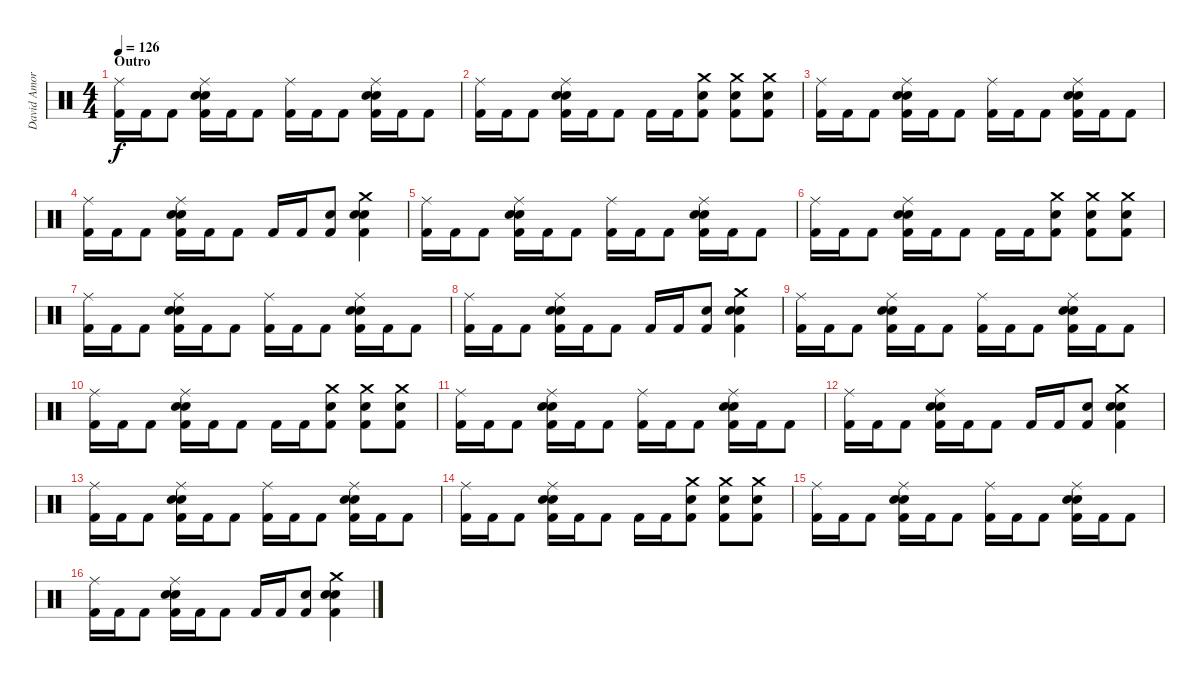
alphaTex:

\track ("David Amore" "David Amor") {instrument percussion}
\staff {score}
\articulation defaults
\ts (4 4)
\section ("" "Outro")
\tempo 126
\clef neutral
\ks c
("Ride (middle)" "Kick (hit) 2").16{dy f} "Kick (hit) 2".16 "Kick (hit) 2".8 ("Ride (middle)" "Snare (hit) 2" "Electric Snare (hit)" "Kick (hit) 2").16 "Kick (hit) 2".16 "Kick (hit) 2".8 ("Ride (middle)" "Kick (hit) 2").16 "Kick (hit) 2".16 "Kick (hit) 2".8 ("Ride (middle)" "Snare (hit) 2" "Electric Snare (hit)" "Kick (hit) 2").16 "Kick (hit) 2".16 "Kick (hit) 2".8 |
("Ride (middle)" "Kick (hit) 2").16 "Kick (hit) 2".16 "Kick (hit) 2".8 ("Electric Snare (hit)" "Snare (hit) 2" "Ride (middle)" "Kick (hit) 2").16 "Kick (hit) 2".16 "Kick (hit) 2".8 "Kick (hit) 2".16 "Kick (hit) 2".16 ("Crash medium (hit)" "Snare (hit) 2" "Kick (hit) 2").8 ("Crash medium (hit)" "Snare (hit) 2" "Kick (hit) 2").8 ("Crash medium (hit)" "Snare (hit) 2" "Kick (hit) 2").8 |
("Ride (middle)" "Kick (hit) 2").16 "Kick (hit) 2".16 "Kick (hit) 2".8 ("Ride (middle)" "Snare (hit) 2" "Electric Snare (hit)" "Kick (hit) 2").16 "Kick (hit) 2".16 "Kick (hit) 2".8 ("Ride (middle)" "Kick (hit) 2").16 "Kick (hit) 2".16 "Kick (hit) 2".8 ("Ride (middle)" "Snare (hit) 2" "Electric Snare (hit)" "Kick (hit) 2").16 "Kick (hit) 2".16 "Kick (hit) 2".8 |
("Ride (middle)" "Kick (hit) 2").16 "Kick (hit) 2".16 "Kick (hit) 2".8 ("Electric Snare (hit)" "Snare (hit) 2" "Ride (middle)" "Kick (hit) 2").16 "Kick (hit) 2".16 "Kick (hit) 2".8 "Kick (hit) 2".16 "Kick (hit) 2".16 ("Snare (hit) 2" "Kick (hit) 2").8 ("Crash medium (hit)" "Electric Snare (hit)" "Snare (hit) 2" "Kick (hit) 2").4 |
("Ride (middle)" "Kick (hit) 2").16 "Kick (hit) 2".16 "Kick (hit) 2".8 ("Ride (middle)" "Snare (hit) 2" "Electric Snare (hit)" "Kick (hit) 2").16 "Kick (hit) 2".16 "Kick (hit) 2".8 ("Ride (middle)" "Kick (hit) 2").16 "Kick (hit) 2".16 "Kick (hit) 2".8 ("Ride (middle)" "Snare (hit) 2" "Electric Snare (hit)" "Kick (hit) 2").16 "Kick (hit) 2".16 "Kick (hit) 2".8 |
("Ride (middle)" "Kick (hit) 2").16 "Kick (hit) 2".16 "Kick (hit) 2".8 ("Electric Snare (hit)" "Snare (hit) 2" "Ride (middle)" "Kick (hit) 2").16 "Kick (hit) 2".16 "Kick (hit) 2".8 "Kick (hit) 2".16 "Kick (hit) 2".16 ("Crash medium (hit)" "Snare (hit) 2" "Kick (hit) 2").8 ("Crash medium (hit)" "Snare (hit) 2" "Kick (hit) 2").8 ("Crash medium (hit)" "Snare (hit) 2" "Kick (hit) 2").8 |
("Ride (middle)" "Kick (hit) 2").16 "Kick (hit) 2".16 "Kick (hit) 2".8 ("Ride (middle)" "Snare (hit) 2" "Electric Snare (hit)" "Kick (hit) 2").16 "Kick (hit) 2".16 "Kick (hit) 2".8 ("Ride (middle)" "Kick (hit) 2").16 "Kick (hit) 2".16 "Kick (hit) 2".8 ("Ride (middle)" "Snare (hit) 2" "Electric Snare (hit)" "Kick (hit) 2").16 "Kick (hit) 2".16 "Kick (hit) 2".8 |
("Ride (middle)" "Kick (hit) 2").16 "Kick (hit) 2".16 "Kick (hit) 2".8 ("Electric Snare (hit)" "Snare (hit) 2" "Ride (middle)" "Kick (hit) 2").16 "Kick (hit) 2".16 "Kick (hit) 2".8 "Kick (hit) 2".16 "Kick (hit) 2".16 ("Snare (hit) 2" "Kick (hit) 2").8 ("Crash medium (hit)" "Electric Snare (hit)" "Snare (hit) 2" "Kick (hit) 2").4 |
("Ride (middle)" "Kick (hit) 2").16 "Kick (hit) 2".16 "Kick (hit) 2".8 ("Ride (middle)" "Snare (hit) 2" "Electric Snare (hit)" "Kick (hit) 2").16 "Kick (hit) 2".16 "Kick (hit) 2".8 ("Ride (middle)" "Kick (hit) 2").16 "Kick (hit) 2".16 "Kick (hit) 2".8 ("Ride (middle)" "Snare (hit) 2" "Electric Snare (hit)" "Kick (hit) 2").16 "Kick (hit) 2".16 "Kick (hit) 2".8 |
("Ride (middle)" "Kick (hit) 2").16 "Kick (hit) 2".16 "Kick (hit) 2".8 ("Electric Snare (hit)" "Snare (hit) 2" "Ride (middle)" "Kick (hit) 2").16 "Kick (hit) 2".16 "Kick (hit) 2".8 "Kick (hit) 2".16 "Kick (hit) 2".16 ("Crash medium (hit)" "Snare (hit) 2" "Kick (hit) 2").8 ("Crash medium (hit)" "Snare (hit) 2" "Kick (hit) 2").8 ("Crash medium (hit)" "Snare (hit) 2" "Kick (hit) 2").8 |
("Ride (middle)" "Kick (hit) 2").16 "Kick (hit) 2".16 "Kick (hit) 2".8 ("Ride (middle)" "Snare (hit) 2" "Electric Snare (hit)" "Kick (hit) 2").16 "Kick (hit) 2".16 "Kick (hit) 2".8 ("Ride (middle)" "Kick (hit) 2").16 "Kick (hit) 2".16 "Kick (hit) 2".8 ("Ride (middle)" "Snare (hit) 2" "Electric Snare (hit)" "Kick (hit) 2").16 "Kick (hit) 2".16 "Kick (hit) 2".8 |
("Ride (middle)" "Kick (hit) 2").16 "Kick (hit) 2".16 "Kick (hit) 2".8 ("Electric Snare (hit)" "Snare (hit) 2" "Ride (middle)" "Kick (hit) 2").16 "Kick (hit) 2".16 "Kick (hit) 2".8 "Kick (hit) 2".16 "Kick (hit) 2".16 ("Snare (hit) 2" "Kick (hit) 2").8 ("Crash medium (hit)" "Electric Snare (hit)" "Snare (hit) 2" "Kick (hit) 2").4 |
("Ride (middle)" "Kick (hit) 2").16 "Kick (hit) 2".16 "Kick (hit) 2".8 ("Ride (middle)" "Snare (hit) 2" "Electric Snare (hit)" "Kick (hit) 2").16 "Kick (hit) 2".16 "Kick (hit) 2".8 ("Ride (middle)" "Kick (hit) 2").16 "Kick (hit) 2".16 "Kick (hit) 2".8 ("Ride (middle)" "Snare (hit) 2" "Electric Snare (hit)" "Kick (hit) 2").16 "Kick (hit) 2".16 "Kick (hit) 2".8 |
("Ride (middle)" "Kick (hit) 2").16 "Kick (hit) 2".16 "Kick (hit) 2".8 ("Electric Snare (hit)" "Snare (hit) 2" "Ride (middle)" "Kick (hit) 2").16 "Kick (hit) 2".16 "Kick (hit) 2".8 "Kick (hit) 2".16 "Kick (hit) 2".16 ("Crash medium (hit)" "Snare (hit) 2" "Kick (hit) 2").8 ("Crash medium (hit)" "Snare (hit) 2" "Kick (hit) 2").8 ("Crash medium (hit)" "Snare (hit) 2" "Kick (hit) 2").8 |
("Ride (middle)" "Kick (hit) 2").16 "Kick (hit) 2".16 "Kick (hit) 2".8 ("Ride (middle)" "Snare (hit) 2" "Electric Snare (hit)" "Kick (hit) 2").16 "Kick (hit) 2".16 "Kick (hit) 2".8 ("Ride (middle)" "Kick (hit) 2").16 "Kick (hit) 2".16 "Kick (hit) 2".8 ("Ride (middle)" "Snare (hit) 2" "Electric Snare (hit)" "Kick (hit) 2").16 "Kick (hit) 2".16 "Kick (hit) 2".8 |
("Ride (middle)" "Kick (hit) 2").16 "Kick (hit) 2".16 "Kick (hit) 2".8 ("Electric Snare (hit)" "Snare (hit) 2" "Ride (middle)" "Kick (hit) 2").16 "Kick (hit) 2".16 "Kick (hit) 2".8 "Kick (hit) 2".16 "Kick (hit) 2".16 ("Snare (hit) 2" "Kick (hit) 2").8 ("Crash medium (hit)" "Electric Snare (hit)" "Snare (hit) 2" "Kick (hit) 2").4
